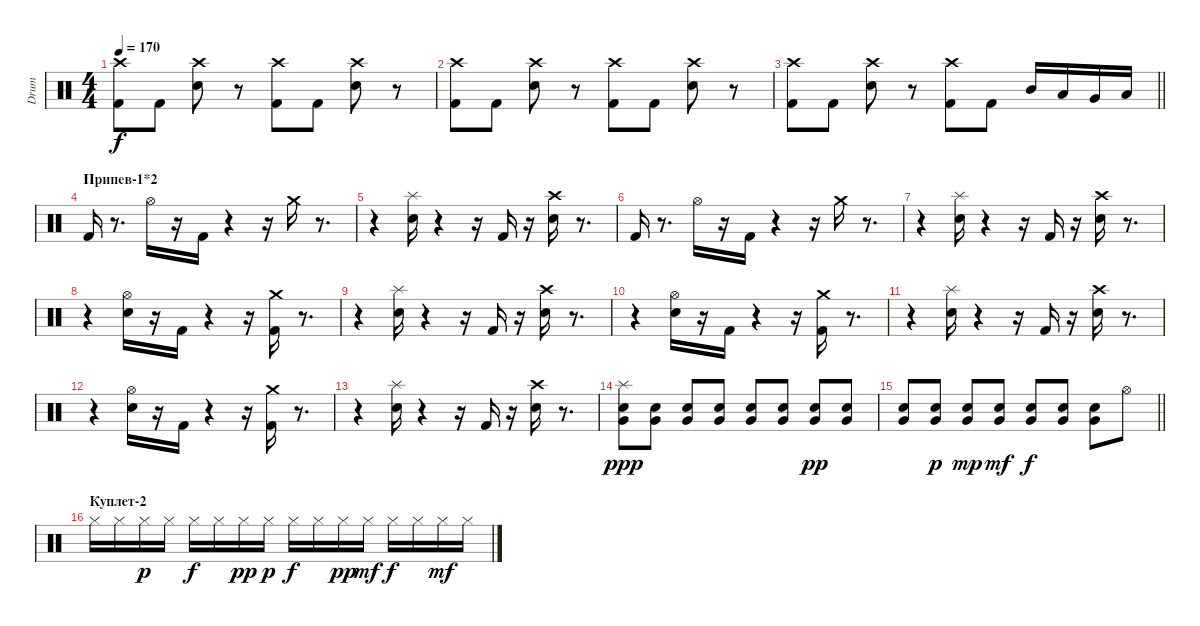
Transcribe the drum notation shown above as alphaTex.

\track ("Drum" "Drum") {instrument percussion}
\staff {score}
\articulation defaults
\ts (4 4)
\tempo 170
\clef neutral
\ks c
("Crash high (hit)" "Kick (hit) 2").8{dy f} "Kick (hit) 2".8 ("Crash high (hit)" "Snare (hit) 2").8 r.8 ("Crash high (hit)" "Kick (hit) 2").8 "Kick (hit) 2".8 ("Crash high (hit)" "Snare (hit) 2").8 r.8 |
("Crash high (hit)" "Kick (hit) 2").8 "Kick (hit) 2".8 ("Crash high (hit)" "Snare (hit) 2").8 r.8 ("Crash high (hit)" "Kick (hit) 2").8 "Kick (hit) 2".8 ("Crash high (hit)" "Snare (hit) 2").8 r.8 |
\barLineRight lightlight
("Crash high (hit)" "Kick (hit) 2").8 "Kick (hit) 2".8 ("Crash high (hit)" "Snare (hit) 2").8 r.8 ("Crash high (hit)" "Kick (hit) 2").8 "Kick (hit) 2".8 "Mid Tom (hit)".16 "Low Tom (hit)".16 "Very Low Tom (hit)".16 "Low Floor Tom (hit)".16 |
\section ("" "Припев-1*2")
"Kick (hit) 2".16 r.8{d} "Hi-Hat (open)".16 r.16 "Kick (hit) 2".16 r.4 r.16 "Crash medium (hit)".16 r.8{d} |
r.4 ("Splash (hit)" "Snare (hit) 2").16 r.4 r.16 "Kick (hit) 2".16 r.16 ("Crash high (hit)" "Snare (hit) 2").16 r.8{d} |
"Kick (hit) 2".16 r.8{d} "Hi-Hat (open)".16 r.16 "Kick (hit) 2".16 r.4 r.16 "Crash medium (hit)".16 r.8{d} |
r.4 ("Splash (hit)" "Snare (hit) 2").16 r.4 r.16 "Kick (hit) 2".16 r.16 ("Crash high (hit)" "Snare (hit) 2").16 r.8{d} |
r.4 ("Snare (hit) 2" "Hi-Hat (open)").16 r.16 "Kick (hit) 2".16 r.4 r.16 ("Kick (hit) 2" "Crash medium (hit)").16 r.8{d} |
r.4 ("Splash (hit)" "Snare (hit) 2").16 r.4 r.16 "Kick (hit) 2".16 r.16 ("Crash high (hit)" "Snare (hit) 2").16 r.8{d} |
r.4 ("Snare (hit) 2" "Hi-Hat (open)").16 r.16 "Kick (hit) 2".16 r.4 r.16 ("Kick (hit) 2" "Crash medium (hit)").16 r.8{d} |
r.4 ("Splash (hit)" "Snare (hit) 2").16 r.4 r.16 "Kick (hit) 2".16 r.16 ("Crash high (hit)" "Snare (hit) 2").16 r.8{d} |
r.4 ("Snare (hit) 2" "Hi-Hat (open)").16 r.16 "Kick (hit) 2".16 r.4 r.16 ("Kick (hit) 2" "Crash medium (hit)").16 r.8{d} |
r.4 ("Splash (hit)" "Snare (hit) 2").16 r.4 r.16 "Kick (hit) 2".16 r.16 ("Crash high (hit)" "Snare (hit) 2").16 r.8{d} |
("Snare (hit) 2" "Very Low Tom (hit)" "Splash (hit)").8{dy ppp} ("Snare (hit) 2" "Very Low Tom (hit)").8 ("Snare (hit) 2" "Very Low Tom (hit)").8 ("Snare (hit) 2" "Very Low Tom (hit)").8 ("Snare (hit) 2" "Very Low Tom (hit)").8 ("Snare (hit) 2" "Very Low Tom (hit)").8 ("Snare (hit) 2" "Very Low Tom (hit)").8{dy pp} ("Snare (hit) 2" "Very Low Tom (hit)").8 |
\barLineRight lightlight
("Snare (hit) 2" "Very Low Tom (hit)").8 ("Snare (hit) 2" "Very Low Tom (hit)").8{dy p} ("Snare (hit) 2" "Very Low Tom (hit)").8{dy mp} ("Snare (hit) 2" "Very Low Tom (hit)").8{dy mf} ("Snare (hit) 2" "Very Low Tom (hit)").8{dy f} ("Snare (hit) 2" "Very Low Tom (hit)").8 ("Snare (hit) 2" "Very Low Tom (hit)").8 "Hi-Hat (open)".8 |
\section ("" "Куплет-2")
"Hi-Hat (closed)".16 "Hi-Hat (closed)".16 "Hi-Hat (closed)".16{dy p} "Hi-Hat (closed)".16 "Hi-Hat (closed)".16{dy f} "Hi-Hat (closed)".16 "Hi-Hat (closed)".16{dy pp} "Hi-Hat (closed)".16{dy p} "Hi-Hat (closed)".16{dy f} "Hi-Hat (closed)".16 "Hi-Hat (closed)".16{dy pp} "Hi-Hat (closed)".16{dy mf} "Hi-Hat (closed)".16{dy f} "Hi-Hat (closed)".16 "Hi-Hat (closed)".16{dy mf} "Hi-Hat (closed)".16
